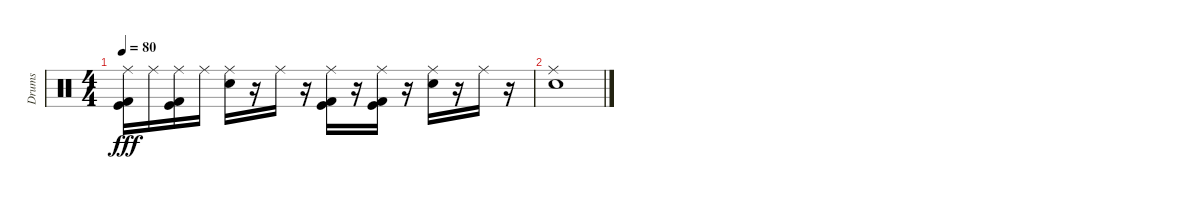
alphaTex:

\track ("Drums" "Drums") {instrument percussion}
\staff {score}
\articulation defaults
\ts (4 4)
\tempo 80
\clef neutral
\ks c
("Ride (middle)" "Kick (hit)" "Kick (hit) 2").16{dy fff} "Ride (middle)".16 ("Ride (middle)" "Kick (hit)" "Kick (hit) 2").16 "Ride (middle)".16 ("Ride (middle)" "Snare (hit) 2").16 r.16 "Ride (middle)".16 r.16 ("Ride (middle)" "Kick (hit)" "Kick (hit) 2").16 r.16 ("Ride (middle)" "Kick (hit)" "Kick (hit) 2").16 r.16 ("Ride (middle)" "Snare (hit) 2").16 r.16 "Ride (middle)".16 r.16 |
("Ride (middle)" "Snare (hit) 2").1
